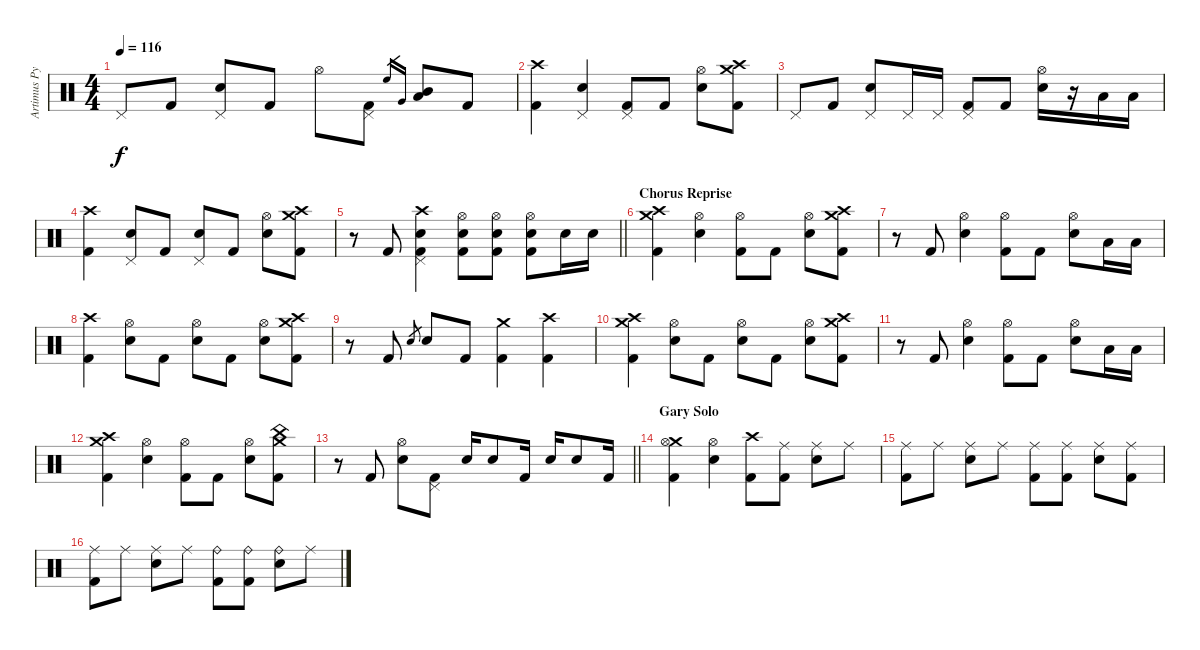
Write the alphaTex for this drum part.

\track ("Artimus Pyle - Drums and Percussion" "Artimus Py") {instrument percussion}
\staff {score}
\articulation defaults
\ts (4 4)
\tempo 116
\clef neutral
\ks c "Pedal Hi-Hat (hit)".8{dy f} "Kick (hit) 2".8
("Snare (hit) 2" "Pedal Hi-Hat (hit)").8 "Kick (hit) 2".8 "Hi-Hat (open)".8 ("Pedal Hi-Hat (hit)" "Kick (hit) 2").8 "High Floor Tom (hit)".16{gr} "Very Low Tom (hit)".16{gr} ("Mid Tom (hit)" "Low Floor Tom (hit)").8 "Kick (hit) 2".8 |
("Crash high (hit)" "Kick (hit) 2").4 ("Snare (hit) 2" "Pedal Hi-Hat (hit)").4 ("Pedal Hi-Hat (hit)" "Kick (hit) 2").8 "Kick (hit) 2".8 ("Snare (hit) 2" "Hi-Hat (open)").8 ("Crash medium (hit)" "Crash high (hit)" "Kick (hit) 2").8 |
"Pedal Hi-Hat (hit)".8 "Kick (hit) 2".8 ("Snare (hit) 2" "Pedal Hi-Hat (hit)").8 "Pedal Hi-Hat (hit)".16 "Pedal Hi-Hat (hit)".16 ("Pedal Hi-Hat (hit)" "Kick (hit) 2").8 "Kick (hit) 2".8 ("Snare (hit) 2" "Hi-Hat (open)").16 r.16 "Low Floor Tom (hit)".16 "Low Floor Tom (hit)".16 |
("Crash high (hit)" "Kick (hit) 2").4 ("Snare (hit) 2" "Pedal Hi-Hat (hit)").8 "Kick (hit) 2".8 ("Snare (hit) 2" "Pedal Hi-Hat (hit)").8 "Kick (hit) 2".8 ("Snare (hit) 2" "Hi-Hat (open)").8 ("Crash medium (hit)" "Crash high (hit)" "Kick (hit) 2").8 |
\barLineRight lightlight
r.8 "Kick (hit) 2".8 ("Crash high (hit)" "Snare (hit) 2" "Pedal Hi-Hat (hit)" "Kick (hit) 2").4 ("Snare (hit) 2" "Hi-Hat (open)" "Kick (hit) 2").8 ("Snare (hit) 2" "Hi-Hat (open)" "Kick (hit) 2").8 ("Snare (hit) 2" "Hi-Hat (open)" "Kick (hit) 2").8 "Snare (hit) 2".16 "Snare (hit) 2".16 |
\section ("" "Chorus Reprise")
("Crash medium (hit)" "Crash high (hit)" "Kick (hit) 2").4 ("Snare (hit) 2" "Hi-Hat (open)").4 ("Hi-Hat (open)" "Kick (hit) 2").8 "Kick (hit) 2".8 ("Snare (hit) 2" "Hi-Hat (open)").8 ("Crash medium (hit)" "Crash high (hit)" "Kick (hit) 2").8 |
r.8 "Kick (hit) 2".8 ("Snare (hit) 2" "Hi-Hat (open)").4 ("Hi-Hat (open)" "Kick (hit) 2").8 "Kick (hit) 2".8 ("Snare (hit) 2" "Hi-Hat (open)").8 "Low Floor Tom (hit)".16 "Low Floor Tom (hit)".16 |
("Crash high (hit)" "Kick (hit) 2").4 ("Snare (hit) 2" "Hi-Hat (open)").8 "Kick (hit) 2".8 ("Snare (hit) 2" "Hi-Hat (open)").8 "Kick (hit) 2".8 ("Snare (hit) 2" "Hi-Hat (open)").8 ("Crash medium (hit)" "Crash high (hit)" "Kick (hit) 2").8 |
r.8 "Kick (hit) 2".8 "Snare (hit) 2".8{gr} "Snare (hit) 2".8 "Kick (hit) 2".8 ("Crash medium (hit)" "Kick (hit) 2").4 ("Crash high (hit)" "Kick (hit) 2").4 |
("Crash high (hit)" "Crash medium (hit)" "Kick (hit) 2").4 ("Snare (hit) 2" "Hi-Hat (open)").8 "Kick (hit) 2".8 ("Snare (hit) 2" "Hi-Hat (open)").8 "Kick (hit) 2".8 ("Snare (hit) 2" "Hi-Hat (open)").8 ("Crash medium (hit)" "Crash high (hit)" "Kick (hit) 2").8 |
r.8 "Kick (hit) 2".8 ("Snare (hit) 2" "Hi-Hat (open)").4 ("Hi-Hat (open)" "Kick (hit) 2").8 "Kick (hit) 2".8 ("Snare (hit) 2" "Hi-Hat (open)").8 "Low Floor Tom (hit)".16 "Low Floor Tom (hit)".16 |
("Crash medium (hit)" "Crash high (hit)" "Kick (hit) 2").4 ("Snare (hit) 2" "Hi-Hat (open)").4 ("Hi-Hat (open)" "Kick (hit) 2").8 "Kick (hit) 2".8 ("Snare (hit) 2" "Hi-Hat (open)").8 ("Crash medium (hit)" "China (hit)" "Kick (hit) 2").8 |
\barLineRight lightlight
r.8 "Kick (hit) 2".8 ("Snare (hit) 2" "Hi-Hat (open)").8 ("Pedal Hi-Hat (hit)" "Kick (hit) 2").8 "Snare (hit) 2".16 "Snare (hit) 2".8 "Kick (hit) 2".16 "Snare (hit) 2".16 "Snare (hit) 2".8 "Kick (hit) 2".16 |
\section ("" "Gary Solo")
("Crash medium (hit)" "Hi-Hat (open)" "Kick (hit) 2").4 ("Snare (hit) 2" "Hi-Hat (open)").4 ("Crash high (hit)" "Kick (hit) 2").8 ("Ride (middle)" "Kick (hit) 2").8 ("Ride (middle)" "Snare (hit) 2").8 "Ride (middle)".8 |
("Ride (middle)" "Kick (hit) 2").8 "Ride (middle)".8 ("Ride (middle)" "Snare (hit) 2").8 "Ride (middle)".8 ("Ride (middle)" "Kick (hit) 2").8 ("Ride (middle)" "Kick (hit) 2").8 ("Ride (middle)" "Snare (hit) 2").8 ("Ride (middle)" "Kick (hit) 2").8 |
("Ride (middle)" "Kick (hit) 2").8 "Ride (middle)".8 ("Ride (middle)" "Snare (hit) 2").8 "Ride (middle)".8 ("Ride (bell)" "Kick (hit) 2").8 ("Ride (bell)" "Kick (hit) 2").8 ("Ride (bell)" "Snare (hit) 2").8 "Ride (middle)".8
